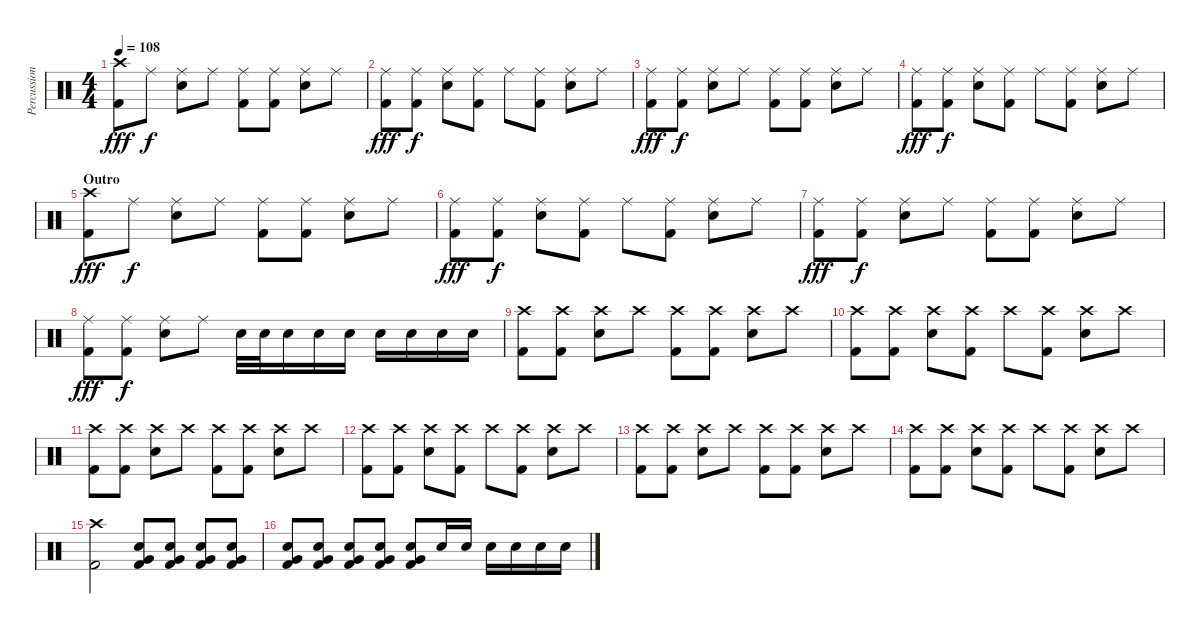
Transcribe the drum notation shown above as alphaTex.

\track ("Percussion" "Percussion") {instrument percussion}
\staff {score}
\articulation defaults
\ts (4 4)
\tempo 108
\clef neutral
\ks c
("Crash high (hit)" "Kick (hit) 2").8{dy fff} "Ride (middle)".8{dy f} ("Ride (middle)" "Snare (hit) 2").8 "Ride (middle)".8 ("Ride (middle)" "Kick (hit) 2").8 ("Ride (middle)" "Kick (hit) 2").8 ("Ride (middle)" "Snare (hit) 2").8 "Ride (middle)".8 |
("Ride (middle)" "Kick (hit) 2").8{dy fff} ("Ride (middle)" "Kick (hit) 2").8{dy f} ("Ride (middle)" "Snare (hit) 2").8 ("Ride (middle)" "Kick (hit) 2").8 "Ride (middle)".8 ("Ride (middle)" "Kick (hit) 2").8 ("Ride (middle)" "Snare (hit) 2").8 "Ride (middle)".8 |
("Ride (middle)" "Kick (hit) 2").8{dy fff} ("Ride (middle)" "Kick (hit) 2").8{dy f} ("Ride (middle)" "Snare (hit) 2").8 "Ride (middle)".8 ("Ride (middle)" "Kick (hit) 2").8 ("Ride (middle)" "Kick (hit) 2").8 ("Ride (middle)" "Snare (hit) 2").8 "Ride (middle)".8 |
("Ride (middle)" "Kick (hit) 2").8{dy fff} ("Ride (middle)" "Kick (hit) 2").8{dy f} ("Ride (middle)" "Snare (hit) 2").8 ("Ride (middle)" "Kick (hit) 2").8 "Ride (middle)".8 ("Ride (middle)" "Kick (hit) 2").8 ("Ride (middle)" "Snare (hit) 2").8 "Ride (middle)".8 |
\section ("" "Outro")
("Crash high (hit)" "Kick (hit) 2").8{dy fff} "Ride (middle)".8{dy f} ("Ride (middle)" "Snare (hit) 2").8 "Ride (middle)".8 ("Ride (middle)" "Kick (hit) 2").8 ("Ride (middle)" "Kick (hit) 2").8 ("Ride (middle)" "Snare (hit) 2").8 "Ride (middle)".8 |
("Ride (middle)" "Kick (hit) 2").8{dy fff} ("Ride (middle)" "Kick (hit) 2").8{dy f} ("Ride (middle)" "Snare (hit) 2").8 ("Ride (middle)" "Kick (hit) 2").8 "Ride (middle)".8 ("Ride (middle)" "Kick (hit) 2").8 ("Ride (middle)" "Snare (hit) 2").8 "Ride (middle)".8 |
("Ride (middle)" "Kick (hit) 2").8{dy fff} ("Ride (middle)" "Kick (hit) 2").8{dy f} ("Ride (middle)" "Snare (hit) 2").8 "Ride (middle)".8 ("Ride (middle)" "Kick (hit) 2").8 ("Ride (middle)" "Kick (hit) 2").8 ("Ride (middle)" "Snare (hit) 2").8 "Ride (middle)".8 |
("Ride (middle)" "Kick (hit) 2").8{dy fff} ("Ride (middle)" "Kick (hit) 2").8{dy f} ("Ride (middle)" "Snare (hit) 2").8 "Ride (middle)".8 "Snare (hit) 2".32 "Snare (hit) 2".32 "Snare (hit) 2".16 "Snare (hit) 2".16 "Snare (hit) 2".16 "Snare (hit) 2".16 "Snare (hit) 2".16 "Snare (hit) 2".16 "Snare (hit) 2".16 |
("Crash high (hit)" "Kick (hit) 2").8 ("Crash high (hit)" "Kick (hit) 2").8 ("Crash high (hit)" "Snare (hit) 2").8 "Crash high (hit)".8 ("Crash high (hit)" "Kick (hit) 2").8 ("Crash high (hit)" "Kick (hit) 2").8 ("Crash high (hit)" "Snare (hit) 2").8 "Crash high (hit)".8 |
("Crash high (hit)" "Kick (hit) 2").8 ("Crash high (hit)" "Kick (hit) 2").8 ("Crash high (hit)" "Snare (hit) 2").8 ("Crash high (hit)" "Kick (hit) 2").8 "Crash high (hit)".8 ("Crash high (hit)" "Kick (hit) 2").8 ("Crash high (hit)" "Snare (hit) 2").8 "Crash high (hit)".8 |
("Crash high (hit)" "Kick (hit) 2").8 ("Crash high (hit)" "Kick (hit) 2").8 ("Crash high (hit)" "Snare (hit) 2").8 "Crash high (hit)".8 ("Crash high (hit)" "Kick (hit) 2").8 ("Crash high (hit)" "Kick (hit) 2").8 ("Crash high (hit)" "Snare (hit) 2").8 "Crash high (hit)".8 |
("Crash high (hit)" "Kick (hit) 2").8 ("Crash high (hit)" "Kick (hit) 2").8 ("Crash high (hit)" "Snare (hit) 2").8 ("Crash high (hit)" "Kick (hit) 2").8 "Crash high (hit)".8 ("Crash high (hit)" "Kick (hit) 2").8 ("Crash high (hit)" "Snare (hit) 2").8 "Crash high (hit)".8 |
("Crash high (hit)" "Kick (hit) 2").8 ("Crash high (hit)" "Kick (hit) 2").8 ("Crash high (hit)" "Snare (hit) 2").8 "Crash high (hit)".8 ("Crash high (hit)" "Kick (hit) 2").8 ("Crash high (hit)" "Kick (hit) 2").8 ("Crash high (hit)" "Snare (hit) 2").8 "Crash high (hit)".8 |
("Crash high (hit)" "Kick (hit) 2").8 ("Crash high (hit)" "Kick (hit) 2").8 ("Crash high (hit)" "Snare (hit) 2").8 ("Crash high (hit)" "Kick (hit) 2").8 "Crash high (hit)".8 ("Crash high (hit)" "Kick (hit) 2").8 ("Crash high (hit)" "Snare (hit) 2").8 "Crash high (hit)".8 |
("Crash high (hit)" "Kick (hit) 2").2 ("Snare (hit) 2" "Very Low Tom (hit)" "Kick (hit) 2").8 ("Snare (hit) 2" "Very Low Tom (hit)" "Kick (hit) 2").8 ("Snare (hit) 2" "Very Low Tom (hit)" "Kick (hit) 2").8 ("Snare (hit) 2" "Very Low Tom (hit)" "Kick (hit) 2").8 |
("Snare (hit) 2" "Very Low Tom (hit)" "Kick (hit) 2").8 ("Snare (hit) 2" "Very Low Tom (hit)" "Kick (hit) 2").8 ("Snare (hit) 2" "Very Low Tom (hit)" "Kick (hit) 2").8 ("Snare (hit) 2" "Very Low Tom (hit)" "Kick (hit) 2").8 ("Snare (hit) 2" "Very Low Tom (hit)" "Kick (hit) 2").8 "Snare (hit) 2".16 "Snare (hit) 2".16 "Snare (hit) 2".16 "Snare (hit) 2".16 "Snare (hit) 2".16 "Snare (hit) 2".16
